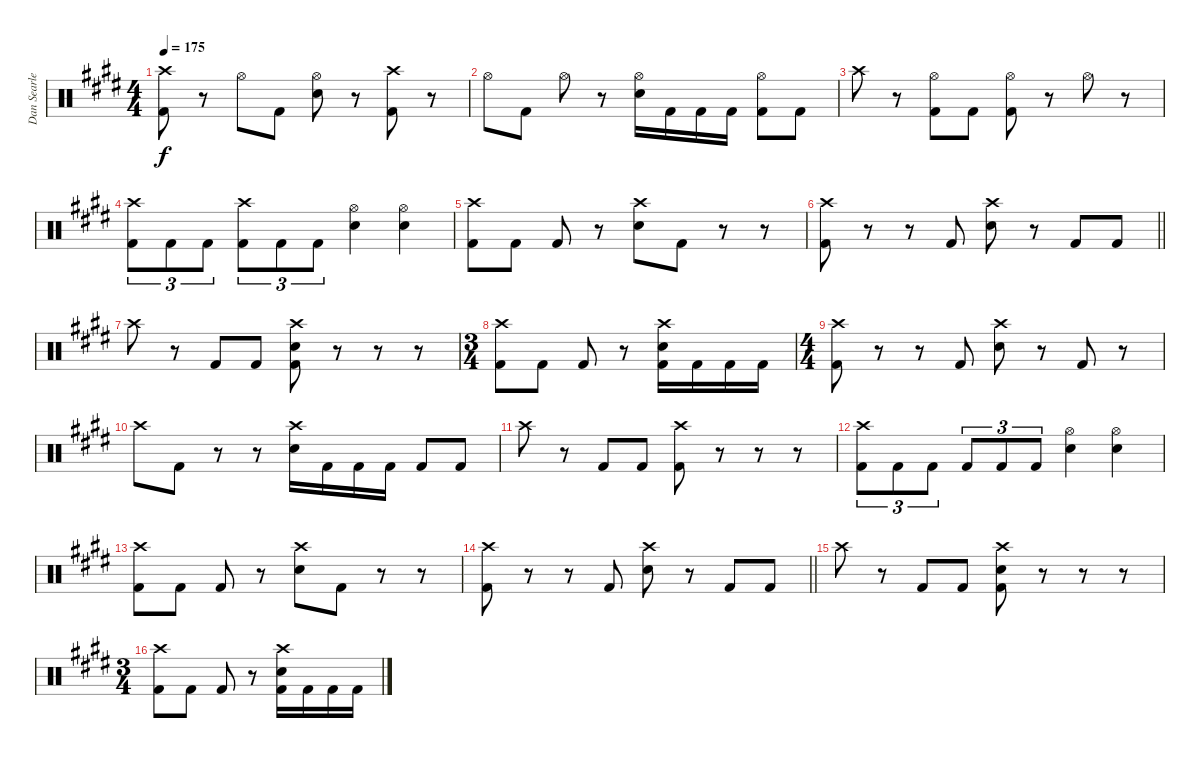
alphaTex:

\track ("Dan Searle" "Dan Searle") {instrument percussion}
\staff {score}
\articulation defaults
\ts (4 4)
\tempo 175
\clef neutral
\ks e
("Crash high (hit)" "Kick (hit) 2").8{dy f} r.8 "Hi-Hat (open)".8 "Kick (hit) 2".8 ("Hi-Hat (open)" "Snare (hit) 2").8 r.8 ("Crash high (hit)" "Kick (hit) 2").8 r.8 |
"Hi-Hat (open)".8 "Kick (hit) 2".8 "Hi-Hat (open)".8 r.8 ("Hi-Hat (open)" "Snare (hit) 2").16 "Kick (hit) 2".16 "Kick (hit) 2".16 "Kick (hit) 2".16 ("Hi-Hat (open)" "Kick (hit) 2").8 "Kick (hit) 2".8 |
"Crash high (hit)".8 r.8 ("Hi-Hat (open)" "Kick (hit) 2").8 "Kick (hit) 2".8 ("Hi-Hat (open)" "Kick (hit) 2").8 r.8 "Hi-Hat (open)".8 r.8 |
("Crash high (hit)" "Kick (hit) 2").8{tu (3 2)} "Kick (hit) 2".8{tu (3 2)} "Kick (hit) 2".8{tu (3 2)} ("Crash high (hit)" "Kick (hit) 2").8{tu (3 2)} "Kick (hit) 2".8{tu (3 2)} "Kick (hit) 2".8{tu (3 2)} ("Hi-Hat (open)" "Snare (hit) 2").4 ("Hi-Hat (open)" "Snare (hit) 2").4 |
("Crash high (hit)" "Kick (hit) 2").8 "Kick (hit) 2".8 "Kick (hit) 2".8 r.8 ("Crash high (hit)" "Snare (hit) 2").8 "Kick (hit) 2".8 r.8 r.8 |
\barLineRight lightlight
("Crash high (hit)" "Kick (hit) 2").8 r.8 r.8 "Kick (hit) 2".8 ("Crash high (hit)" "Snare (hit) 2").8 r.8 "Kick (hit) 2".8 "Kick (hit) 2".8 |
"Crash high (hit)".8 r.8 "Kick (hit) 2".8 "Kick (hit) 2".8 ("Crash high (hit)" "Snare (hit) 2" "Kick (hit) 2").8 r.8 r.8 r.8 |
\ts (3 4)
("Crash high (hit)" "Kick (hit) 2").8 "Kick (hit) 2".8 "Kick (hit) 2".8 r.8 ("Crash high (hit)" "Snare (hit) 2" "Kick (hit) 2").16 "Kick (hit) 2".16 "Kick (hit) 2".16 "Kick (hit) 2".16 |
\ts (4 4)
("Crash high (hit)" "Kick (hit) 2").8 r.8 r.8 "Kick (hit) 2".8 ("Crash high (hit)" "Snare (hit) 2").8 r.8 "Kick (hit) 2".8 r.8 |
"Crash high (hit)".8 "Kick (hit) 2".8 r.8 r.8 ("Crash high (hit)" "Snare (hit) 2").16 "Kick (hit) 2".16 "Kick (hit) 2".16 "Kick (hit) 2".16 "Kick (hit) 2".8 "Kick (hit) 2".8 |
"Crash high (hit)".8 r.8 "Kick (hit) 2".8 "Kick (hit) 2".8 ("Crash high (hit)" "Kick (hit) 2").8 r.8 r.8 r.8 |
("Crash high (hit)" "Kick (hit) 2").8{tu (3 2)} "Kick (hit) 2".8{tu (3 2)} "Kick (hit) 2".8{tu (3 2)} "Kick (hit) 2".8{tu (3 2)} "Kick (hit) 2".8{tu (3 2)} "Kick (hit) 2".8{tu (3 2)} ("Hi-Hat (open)" "Snare (hit) 2").4 ("Hi-Hat (open)" "Snare (hit) 2").4 |
("Crash high (hit)" "Kick (hit) 2").8 "Kick (hit) 2".8 "Kick (hit) 2".8 r.8 ("Crash high (hit)" "Snare (hit) 2").8 "Kick (hit) 2".8 r.8 r.8 |
\barLineRight lightlight
("Crash high (hit)" "Kick (hit) 2").8 r.8 r.8 "Kick (hit) 2".8 ("Crash high (hit)" "Snare (hit) 2").8 r.8 "Kick (hit) 2".8 "Kick (hit) 2".8 |
"Crash high (hit)".8 r.8 "Kick (hit) 2".8 "Kick (hit) 2".8 ("Crash high (hit)" "Snare (hit) 2" "Kick (hit) 2").8 r.8 r.8 r.8 |
\ts (3 4)
("Crash high (hit)" "Kick (hit) 2").8 "Kick (hit) 2".8 "Kick (hit) 2".8 r.8 ("Crash high (hit)" "Snare (hit) 2" "Kick (hit) 2").16 "Kick (hit) 2".16 "Kick (hit) 2".16 "Kick (hit) 2".16
